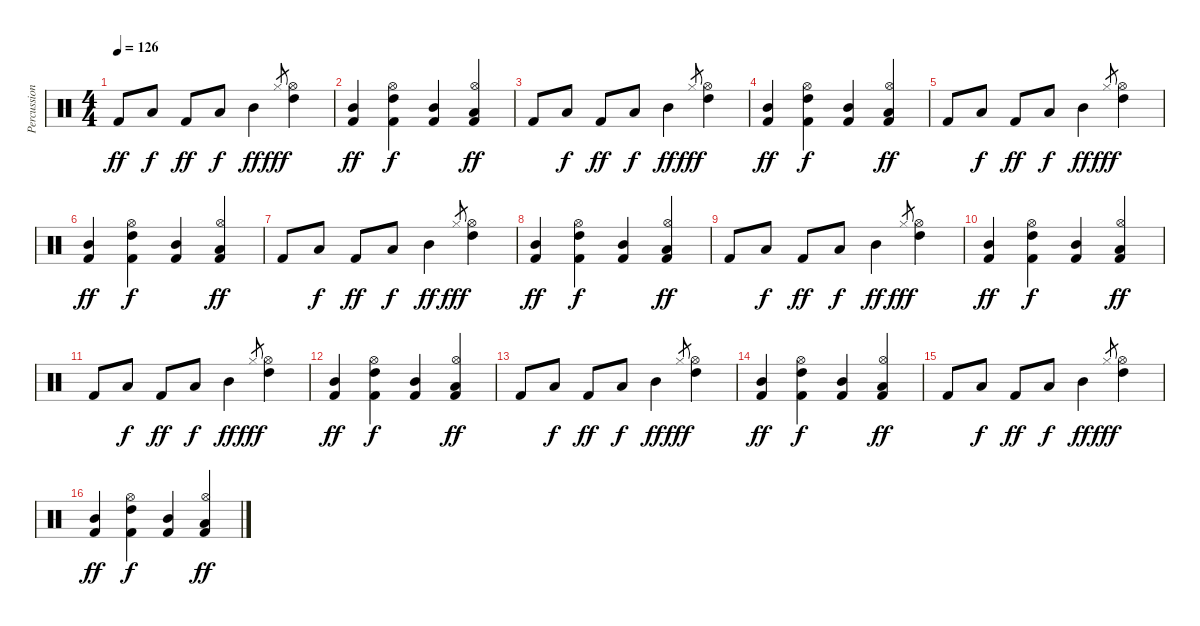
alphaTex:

\track ("Percussion" "Percussion") {instrument percussion}
\staff {score}
\articulation defaults
\ts (4 4)
\tempo 126
\clef neutral
\ks c "Kick (hit) 2".8{dy ff} "Low Floor Tom (hit)".8{dy f} "Kick (hit) 2".8{dy ff} "Low Floor Tom (hit)".8{dy f} "Mid Tom (hit)".4{dy ff} "Hi-Hat (closed)".8{gr dy fff}
("High Tom (hit)" "Hi-Hat (open)").4 |
("Kick (hit) 2" "Mid Tom (hit)").4{dy ff} ("Kick (hit) 2" "High Tom (hit)" "Hi-Hat (open)").4{dy f} ("Kick (hit) 2" "Mid Tom (hit)").4 ("Kick (hit) 2" "Low Tom (hit)" "Hi-Hat (open)").4{dy ff} |
"Kick (hit) 2".8 "Low Floor Tom (hit)".8{dy f} "Kick (hit) 2".8{dy ff} "Low Floor Tom (hit)".8{dy f} "Mid Tom (hit)".4{dy ff} "Hi-Hat (closed)".8{gr dy fff} ("High Tom (hit)" "Hi-Hat (open)").4 |
("Kick (hit) 2" "Mid Tom (hit)").4{dy ff} ("Kick (hit) 2" "High Tom (hit)" "Hi-Hat (open)").4{dy f} ("Kick (hit) 2" "Mid Tom (hit)").4 ("Kick (hit) 2" "Low Tom (hit)" "Hi-Hat (open)").4{dy ff} |
"Kick (hit) 2".8 "Low Floor Tom (hit)".8{dy f} "Kick (hit) 2".8{dy ff} "Low Floor Tom (hit)".8{dy f} "Mid Tom (hit)".4{dy ff} "Hi-Hat (closed)".8{gr dy fff} ("High Tom (hit)" "Hi-Hat (open)").4 |
("Kick (hit) 2" "Mid Tom (hit)").4{dy ff} ("Kick (hit) 2" "High Tom (hit)" "Hi-Hat (open)").4{dy f} ("Kick (hit) 2" "Mid Tom (hit)").4 ("Kick (hit) 2" "Low Tom (hit)" "Hi-Hat (open)").4{dy ff} |
"Kick (hit) 2".8 "Low Floor Tom (hit)".8{dy f} "Kick (hit) 2".8{dy ff} "Low Floor Tom (hit)".8{dy f} "Mid Tom (hit)".4{dy ff} "Hi-Hat (closed)".8{gr dy fff} ("High Tom (hit)" "Hi-Hat (open)").4 |
("Kick (hit) 2" "Mid Tom (hit)").4{dy ff} ("Kick (hit) 2" "High Tom (hit)" "Hi-Hat (open)").4{dy f} ("Kick (hit) 2" "Mid Tom (hit)").4 ("Kick (hit) 2" "Low Tom (hit)" "Hi-Hat (open)").4{dy ff} |
"Kick (hit) 2".8 "Low Floor Tom (hit)".8{dy f} "Kick (hit) 2".8{dy ff} "Low Floor Tom (hit)".8{dy f} "Mid Tom (hit)".4{dy ff} "Hi-Hat (closed)".8{gr dy fff} ("High Tom (hit)" "Hi-Hat (open)").4 |
("Kick (hit) 2" "Mid Tom (hit)").4{dy ff} ("Kick (hit) 2" "High Tom (hit)" "Hi-Hat (open)").4{dy f} ("Kick (hit) 2" "Mid Tom (hit)").4 ("Kick (hit) 2" "Low Tom (hit)" "Hi-Hat (open)").4{dy ff} |
"Kick (hit) 2".8 "Low Floor Tom (hit)".8{dy f} "Kick (hit) 2".8{dy ff} "Low Floor Tom (hit)".8{dy f} "Mid Tom (hit)".4{dy ff} "Hi-Hat (closed)".8{gr dy fff} ("High Tom (hit)" "Hi-Hat (open)").4 |
("Kick (hit) 2" "Mid Tom (hit)").4{dy ff} ("Kick (hit) 2" "High Tom (hit)" "Hi-Hat (open)").4{dy f} ("Kick (hit) 2" "Mid Tom (hit)").4 ("Kick (hit) 2" "Low Tom (hit)" "Hi-Hat (open)").4{dy ff} |
"Kick (hit) 2".8 "Low Floor Tom (hit)".8{dy f} "Kick (hit) 2".8{dy ff} "Low Floor Tom (hit)".8{dy f} "Mid Tom (hit)".4{dy ff} "Hi-Hat (closed)".8{gr dy fff} ("High Tom (hit)" "Hi-Hat (open)").4 |
("Kick (hit) 2" "Mid Tom (hit)").4{dy ff} ("Kick (hit) 2" "High Tom (hit)" "Hi-Hat (open)").4{dy f} ("Kick (hit) 2" "Mid Tom (hit)").4 ("Kick (hit) 2" "Low Tom (hit)" "Hi-Hat (open)").4{dy ff} |
"Kick (hit) 2".8 "Low Floor Tom (hit)".8{dy f} "Kick (hit) 2".8{dy ff} "Low Floor Tom (hit)".8{dy f} "Mid Tom (hit)".4{dy ff} "Hi-Hat (closed)".8{gr dy fff} ("High Tom (hit)" "Hi-Hat (open)").4 |
("Kick (hit) 2" "Mid Tom (hit)").4{dy ff} ("Kick (hit) 2" "High Tom (hit)" "Hi-Hat (open)").4{dy f} ("Kick (hit) 2" "Mid Tom (hit)").4 ("Kick (hit) 2" "Low Tom (hit)" "Hi-Hat (open)").4{dy ff}
